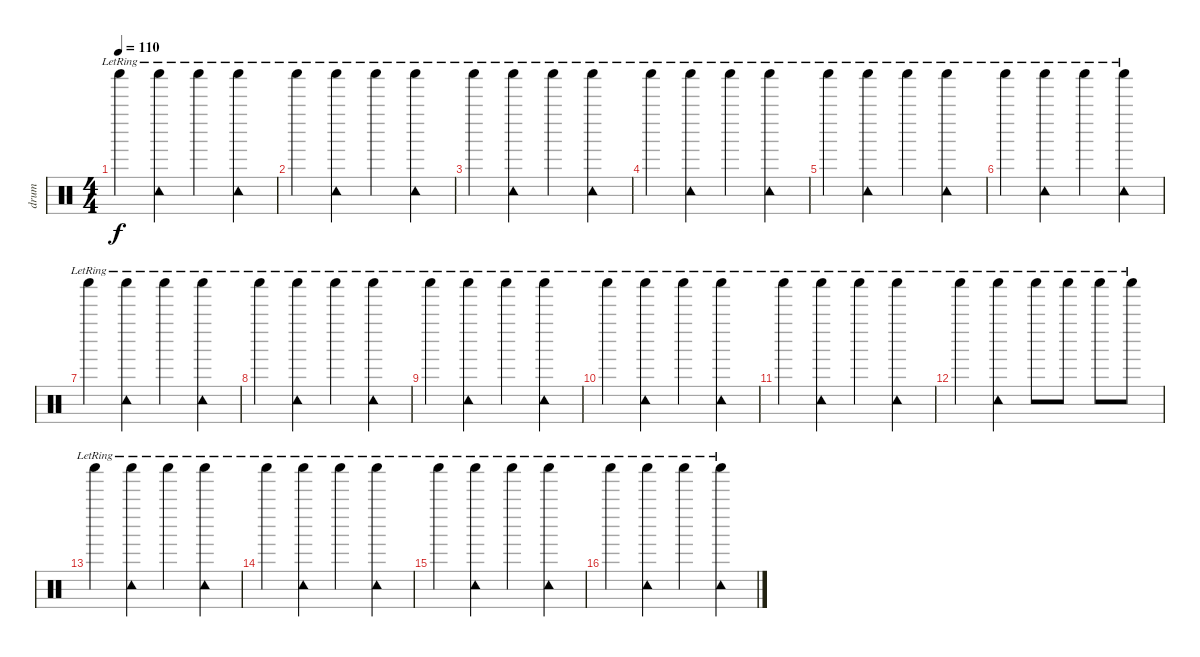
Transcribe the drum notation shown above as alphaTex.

\track ("drum" "drum") {instrument percussion}
\staff {score}
\articulation defaults
\ts (4 4)
\tempo 110
\clef neutral
\ks c "Shaker (hit)"{lr}.4{dy f}
("Tambourine (hit)"{lr} "Shaker (hit)"{lr}).4 "Shaker (hit)"{lr}.4 ("Tambourine (hit)"{lr} "Shaker (hit)"{lr}).4 |
"Shaker (hit)"{lr}.4 ("Tambourine (hit)"{lr} "Shaker (hit)"{lr}).4 "Shaker (hit)"{lr}.4 ("Tambourine (hit)"{lr} "Shaker (hit)"{lr}).4 |
"Shaker (hit)"{lr}.4 ("Tambourine (hit)"{lr} "Shaker (hit)"{lr}).4 "Shaker (hit)"{lr}.4 ("Tambourine (hit)"{lr} "Shaker (hit)"{lr}).4 |
"Shaker (hit)"{lr}.4 ("Tambourine (hit)"{lr} "Shaker (hit)"{lr}).4 "Shaker (hit)"{lr}.4 ("Tambourine (hit)"{lr} "Shaker (hit)"{lr}).4 |
"Shaker (hit)"{lr}.4 ("Tambourine (hit)"{lr} "Shaker (hit)"{lr}).4 "Shaker (hit)"{lr}.4 ("Tambourine (hit)"{lr} "Shaker (hit)"{lr}).4 |
"Shaker (hit)"{lr}.4 ("Tambourine (hit)"{lr} "Shaker (hit)"{lr}).4 "Shaker (hit)"{lr}.4 ("Tambourine (hit)"{lr} "Shaker (hit)"{lr}).4 |
"Shaker (hit)"{lr}.4 ("Tambourine (hit)"{lr} "Shaker (hit)"{lr}).4 "Shaker (hit)"{lr}.4 ("Tambourine (hit)"{lr} "Shaker (hit)"{lr}).4 |
"Shaker (hit)"{lr}.4 ("Tambourine (hit)"{lr} "Shaker (hit)"{lr}).4 "Shaker (hit)"{lr}.4 ("Tambourine (hit)"{lr} "Shaker (hit)"{lr}).4 |
"Shaker (hit)"{lr}.4 ("Tambourine (hit)"{lr} "Shaker (hit)"{lr}).4 "Shaker (hit)"{lr}.4 ("Tambourine (hit)"{lr} "Shaker (hit)"{lr}).4 |
"Shaker (hit)"{lr}.4 ("Tambourine (hit)"{lr} "Shaker (hit)"{lr}).4 "Shaker (hit)"{lr}.4 ("Tambourine (hit)"{lr} "Shaker (hit)"{lr}).4 |
"Shaker (hit)"{lr}.4 ("Tambourine (hit)"{lr} "Shaker (hit)"{lr}).4 "Shaker (hit)"{lr}.4 ("Tambourine (hit)"{lr} "Shaker (hit)"{lr}).4 |
"Shaker (hit)"{lr}.4 ("Tambourine (hit)"{lr} "Shaker (hit)"{lr}).4 "Shaker (hit)"{lr}.8 "Shaker (hit)"{lr}.8 "Shaker (hit)"{lr}.8 "Shaker (hit)"{lr}.8 |
"Shaker (hit)"{lr}.4 ("Tambourine (hit)"{lr} "Shaker (hit)"{lr}).4 "Shaker (hit)"{lr}.4 ("Tambourine (hit)"{lr} "Shaker (hit)"{lr}).4 |
"Shaker (hit)"{lr}.4 ("Tambourine (hit)"{lr} "Shaker (hit)"{lr}).4 "Shaker (hit)"{lr}.4 ("Tambourine (hit)"{lr} "Shaker (hit)"{lr}).4 |
"Shaker (hit)"{lr}.4 ("Tambourine (hit)"{lr} "Shaker (hit)"{lr}).4 "Shaker (hit)"{lr}.4 ("Tambourine (hit)"{lr} "Shaker (hit)"{lr}).4 |
"Shaker (hit)"{lr}.4 ("Tambourine (hit)"{lr} "Shaker (hit)"{lr}).4 "Shaker (hit)"{lr}.4 ("Tambourine (hit)"{lr} "Shaker (hit)"{lr}).4
